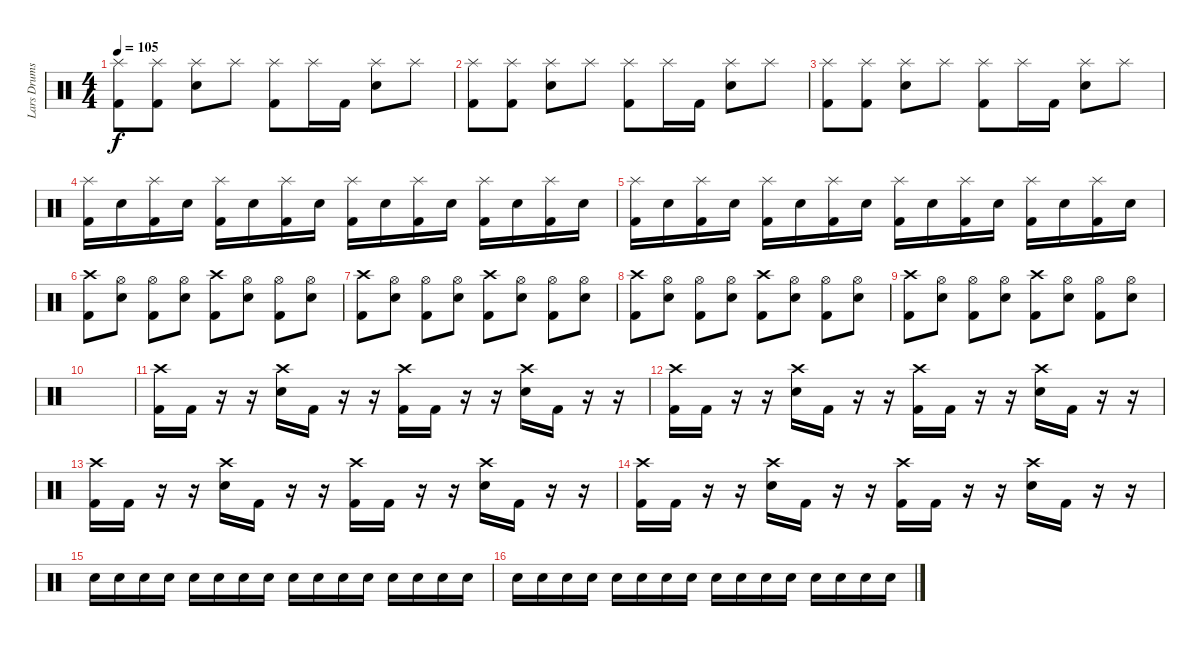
\track ("Lars Drums" "Lars Drums") {instrument percussion}
\staff {score}
\articulation defaults
\ts (4 4)
\tempo 105
\clef neutral
\ks c
("Splash (hit)" "Kick (hit) 2").8{dy f} ("Splash (hit)" "Kick (hit) 2").8 ("Splash (hit)" "Snare (hit) 2").8 "Splash (hit)".8 ("Splash (hit)" "Kick (hit) 2").8 "Splash (hit)".16 "Kick (hit) 2".16 ("Splash (hit)" "Snare (hit) 2").8 "Splash (hit)".8 |
("Splash (hit)" "Kick (hit) 2").8 ("Splash (hit)" "Kick (hit) 2").8 ("Splash (hit)" "Snare (hit) 2").8 "Splash (hit)".8 ("Splash (hit)" "Kick (hit) 2").8 "Splash (hit)".16 "Kick (hit) 2".16 ("Splash (hit)" "Snare (hit) 2").8 "Splash (hit)".8 |
("Splash (hit)" "Kick (hit) 2").8 ("Splash (hit)" "Kick (hit) 2").8 ("Splash (hit)" "Snare (hit) 2").8 "Splash (hit)".8 ("Splash (hit)" "Kick (hit) 2").8 "Splash (hit)".16 "Kick (hit) 2".16 ("Splash (hit)" "Snare (hit) 2").8 "Splash (hit)".8 |
("Splash (hit)" "Kick (hit) 2").16 "Snare (hit) 2".16 ("Splash (hit)" "Kick (hit) 2").16 "Snare (hit) 2".16 ("Splash (hit)" "Kick (hit) 2").16 "Snare (hit) 2".16 ("Splash (hit)" "Kick (hit) 2").16 "Snare (hit) 2".16 ("Splash (hit)" "Kick (hit) 2").16 "Snare (hit) 2".16 ("Splash (hit)" "Kick (hit) 2").16 "Snare (hit) 2".16 ("Splash (hit)" "Kick (hit) 2").16 "Snare (hit) 2".16 ("Splash (hit)" "Kick (hit) 2").16 "Snare (hit) 2".16 |
("Splash (hit)" "Kick (hit) 2").16 "Snare (hit) 2".16 ("Splash (hit)" "Kick (hit) 2").16 "Snare (hit) 2".16 ("Splash (hit)" "Kick (hit) 2").16 "Snare (hit) 2".16 ("Splash (hit)" "Kick (hit) 2").16 "Snare (hit) 2".16 ("Splash (hit)" "Kick (hit) 2").16 "Snare (hit) 2".16 ("Splash (hit)" "Kick (hit) 2").16 "Snare (hit) 2".16 ("Splash (hit)" "Kick (hit) 2").16 "Snare (hit) 2".16 ("Splash (hit)" "Kick (hit) 2").16 "Snare (hit) 2".16 |
("Crash high (hit)" "Kick (hit) 2").8 ("Hi-Hat (open)" "Snare (hit) 2").8 ("Hi-Hat (open)" "Kick (hit) 2").8 ("Hi-Hat (open)" "Snare (hit) 2").8 ("Crash high (hit)" "Kick (hit) 2").8 ("Hi-Hat (open)" "Snare (hit) 2").8 ("Hi-Hat (open)" "Kick (hit) 2").8 ("Hi-Hat (open)" "Snare (hit) 2").8 |
("Crash high (hit)" "Kick (hit) 2").8 ("Hi-Hat (open)" "Snare (hit) 2").8 ("Hi-Hat (open)" "Kick (hit) 2").8 ("Hi-Hat (open)" "Snare (hit) 2").8 ("Crash high (hit)" "Kick (hit) 2").8 ("Hi-Hat (open)" "Snare (hit) 2").8 ("Hi-Hat (open)" "Kick (hit) 2").8 ("Hi-Hat (open)" "Snare (hit) 2").8 |
("Crash high (hit)" "Kick (hit) 2").8 ("Hi-Hat (open)" "Snare (hit) 2").8 ("Hi-Hat (open)" "Kick (hit) 2").8 ("Hi-Hat (open)" "Snare (hit) 2").8 ("Crash high (hit)" "Kick (hit) 2").8 ("Hi-Hat (open)" "Snare (hit) 2").8 ("Hi-Hat (open)" "Kick (hit) 2").8 ("Hi-Hat (open)" "Snare (hit) 2").8 |
("Crash high (hit)" "Kick (hit) 2").8 ("Hi-Hat (open)" "Snare (hit) 2").8 ("Hi-Hat (open)" "Kick (hit) 2").8 ("Hi-Hat (open)" "Snare (hit) 2").8 ("Crash high (hit)" "Kick (hit) 2").8 ("Hi-Hat (open)" "Snare (hit) 2").8 ("Hi-Hat (open)" "Kick (hit) 2").8 ("Hi-Hat (open)" "Snare (hit) 2").8 |
|
("Crash high (hit)" "Kick (hit) 2").16 "Kick (hit) 2".16 r.16 r.16 ("Crash high (hit)" "Snare (hit) 2").16 "Kick (hit) 2".16 r.16 r.16 ("Crash high (hit)" "Kick (hit) 2").16 "Kick (hit) 2".16 r.16 r.16 ("Crash high (hit)" "Snare (hit) 2").16 "Kick (hit) 2".16 r.16 r.16 |
("Crash high (hit)" "Kick (hit) 2").16 "Kick (hit) 2".16 r.16 r.16 ("Crash high (hit)" "Snare (hit) 2").16 "Kick (hit) 2".16 r.16 r.16 ("Crash high (hit)" "Kick (hit) 2").16 "Kick (hit) 2".16 r.16 r.16 ("Crash high (hit)" "Snare (hit) 2").16 "Kick (hit) 2".16 r.16 r.16 |
("Crash high (hit)" "Kick (hit) 2").16 "Kick (hit) 2".16 r.16 r.16 ("Crash high (hit)" "Snare (hit) 2").16 "Kick (hit) 2".16 r.16 r.16 ("Crash high (hit)" "Kick (hit) 2").16 "Kick (hit) 2".16 r.16 r.16 ("Crash high (hit)" "Snare (hit) 2").16 "Kick (hit) 2".16 r.16 r.16 |
("Crash high (hit)" "Kick (hit) 2").16 "Kick (hit) 2".16 r.16 r.16 ("Crash high (hit)" "Snare (hit) 2").16 "Kick (hit) 2".16 r.16 r.16 ("Crash high (hit)" "Kick (hit) 2").16 "Kick (hit) 2".16 r.16 r.16 ("Crash high (hit)" "Snare (hit) 2").16 "Kick (hit) 2".16 r.16 r.16 |
"Snare (hit) 2".16{volume 7} "Snare (hit) 2".16{volume 16} "Snare (hit) 2".16 "Snare (hit) 2".16 "Snare (hit) 2".16 "Snare (hit) 2".16 "Snare (hit) 2".16 "Snare (hit) 2".16 "Snare (hit) 2".16 "Snare (hit) 2".16 "Snare (hit) 2".16 "Snare (hit) 2".16 "Snare (hit) 2".16 "Snare (hit) 2".16 "Snare (hit) 2".16 "Snare (hit) 2".16 |
"Snare (hit) 2".16 "Snare (hit) 2".16 "Snare (hit) 2".16 "Snare (hit) 2".16 "Snare (hit) 2".16 "Snare (hit) 2".16 "Snare (hit) 2".16 "Snare (hit) 2".16 "Snare (hit) 2".16{volume 16} "Snare (hit) 2".16 "Snare (hit) 2".16 "Snare (hit) 2".16 "Snare (hit) 2".16 "Snare (hit) 2".16 "Snare (hit) 2".16 "Snare (hit) 2".16
